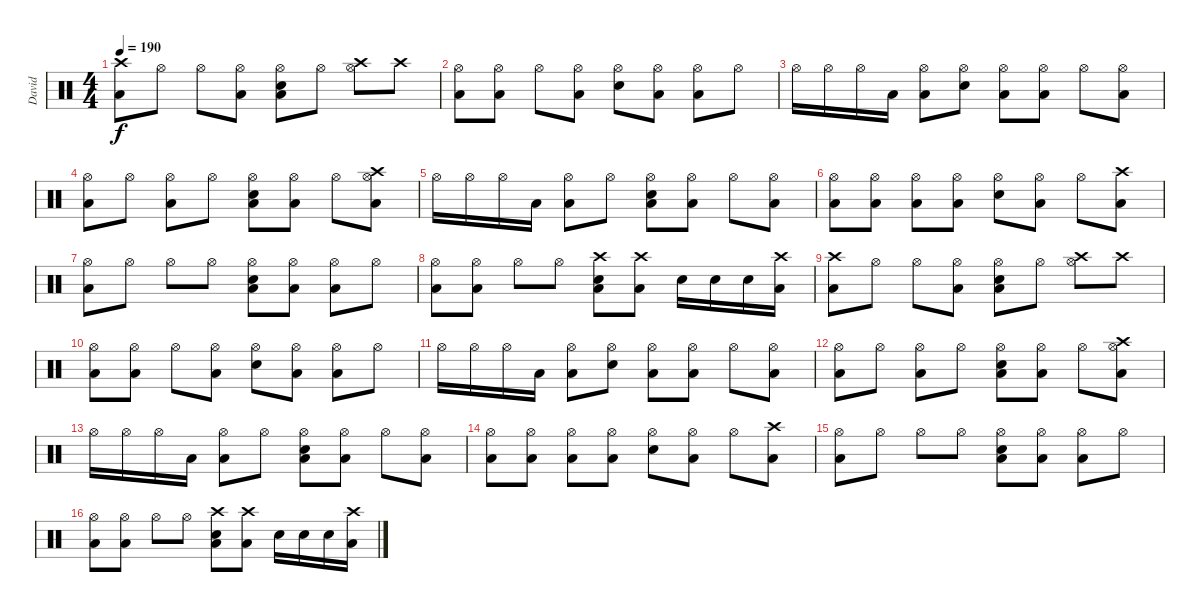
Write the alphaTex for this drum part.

\track ("David" "David") {instrument percussion}
\staff {score}
\articulation defaults
\ts (4 4)
\tempo 190
\clef neutral
\ks c
("Crash high (hit)" "Low Tom (hit)").8{dy f} "Hi-Hat (open)".8 "Hi-Hat (open)".8 ("Hi-Hat (open)" "Low Tom (hit)").8 ("Hi-Hat (open)" "Electric Snare (hit)" "Low Tom (hit)").8 "Hi-Hat (open)".8 ("Crash high (hit)" "Hi-Hat (open)").8 "Crash high (hit)".8 |
("Hi-Hat (open)" "Low Tom (hit)").8 ("Hi-Hat (open)" "Low Tom (hit)").8 "Hi-Hat (open)".8 ("Hi-Hat (open)" "Low Tom (hit)").8 ("Hi-Hat (open)" "Electric Snare (hit)").8 ("Hi-Hat (open)" "Low Tom (hit)").8 ("Hi-Hat (open)" "Low Tom (hit)").8 "Hi-Hat (open)".8 |
"Hi-Hat (open)".16 "Hi-Hat (open)".16 "Hi-Hat (open)".16 "Low Tom (hit)".16 ("Hi-Hat (open)" "Low Tom (hit)").8 ("Hi-Hat (open)" "Electric Snare (hit)").8 ("Hi-Hat (open)" "Low Tom (hit)").8 ("Hi-Hat (open)" "Low Tom (hit)").8 "Hi-Hat (open)".8 ("Hi-Hat (open)" "Low Tom (hit)").8 |
("Hi-Hat (open)" "Low Tom (hit)").8 "Hi-Hat (open)".8 ("Hi-Hat (open)" "Low Tom (hit)").8 "Hi-Hat (open)".8 ("Hi-Hat (open)" "Electric Snare (hit)" "Low Tom (hit)").8 ("Hi-Hat (open)" "Low Tom (hit)").8 "Hi-Hat (open)".8 ("Crash high (hit)" "Hi-Hat (open)" "Low Tom (hit)").8 |
"Hi-Hat (open)".16 "Hi-Hat (open)".16 "Hi-Hat (open)".16 "Low Tom (hit)".16 ("Hi-Hat (open)" "Low Tom (hit)").8 "Hi-Hat (open)".8 ("Hi-Hat (open)" "Electric Snare (hit)" "Low Tom (hit)").8 ("Hi-Hat (open)" "Low Tom (hit)").8 "Hi-Hat (open)".8 ("Hi-Hat (open)" "Low Tom (hit)").8 |
("Hi-Hat (open)" "Low Tom (hit)").8 ("Hi-Hat (open)" "Low Tom (hit)").8 ("Hi-Hat (open)" "Low Tom (hit)").8 ("Hi-Hat (open)" "Low Tom (hit)").8 ("Hi-Hat (open)" "Electric Snare (hit)").8 ("Hi-Hat (open)" "Low Tom (hit)").8 "Hi-Hat (open)".8 ("Crash high (hit)" "Low Tom (hit)").8 |
("Hi-Hat (open)" "Low Tom (hit)").8 "Hi-Hat (open)".8 "Hi-Hat (open)".8 "Hi-Hat (open)".8 ("Hi-Hat (open)" "Electric Snare (hit)" "Low Tom (hit)").8 ("Hi-Hat (open)" "Low Tom (hit)").8 ("Hi-Hat (open)" "Low Tom (hit)").8 "Hi-Hat (open)".8 |
("Hi-Hat (open)" "Low Tom (hit)").8 ("Hi-Hat (open)" "Low Tom (hit)").8 "Hi-Hat (open)".8 "Hi-Hat (open)".8 ("Crash high (hit)" "Electric Snare (hit)" "Low Tom (hit)").8 ("Crash high (hit)" "Low Tom (hit)").8 "Electric Snare (hit)".16 "Electric Snare (hit)".16 "Electric Snare (hit)".16 ("Crash high (hit)" "Low Tom (hit)").16 |
("Crash high (hit)" "Low Tom (hit)").8 "Hi-Hat (open)".8 "Hi-Hat (open)".8 ("Hi-Hat (open)" "Low Tom (hit)").8 ("Hi-Hat (open)" "Electric Snare (hit)" "Low Tom (hit)").8 "Hi-Hat (open)".8 ("Crash high (hit)" "Hi-Hat (open)").8 "Crash high (hit)".8 |
("Hi-Hat (open)" "Low Tom (hit)").8 ("Hi-Hat (open)" "Low Tom (hit)").8 "Hi-Hat (open)".8 ("Hi-Hat (open)" "Low Tom (hit)").8 ("Hi-Hat (open)" "Electric Snare (hit)").8 ("Hi-Hat (open)" "Low Tom (hit)").8 ("Hi-Hat (open)" "Low Tom (hit)").8 "Hi-Hat (open)".8 |
"Hi-Hat (open)".16 "Hi-Hat (open)".16 "Hi-Hat (open)".16 "Low Tom (hit)".16 ("Hi-Hat (open)" "Low Tom (hit)").8 ("Hi-Hat (open)" "Electric Snare (hit)").8 ("Hi-Hat (open)" "Low Tom (hit)").8 ("Hi-Hat (open)" "Low Tom (hit)").8 "Hi-Hat (open)".8 ("Hi-Hat (open)" "Low Tom (hit)").8 |
("Hi-Hat (open)" "Low Tom (hit)").8 "Hi-Hat (open)".8 ("Hi-Hat (open)" "Low Tom (hit)").8 "Hi-Hat (open)".8 ("Hi-Hat (open)" "Electric Snare (hit)" "Low Tom (hit)").8 ("Hi-Hat (open)" "Low Tom (hit)").8 "Hi-Hat (open)".8 ("Crash high (hit)" "Hi-Hat (open)" "Low Tom (hit)").8 |
"Hi-Hat (open)".16 "Hi-Hat (open)".16 "Hi-Hat (open)".16 "Low Tom (hit)".16 ("Hi-Hat (open)" "Low Tom (hit)").8 "Hi-Hat (open)".8 ("Hi-Hat (open)" "Electric Snare (hit)" "Low Tom (hit)").8 ("Hi-Hat (open)" "Low Tom (hit)").8 "Hi-Hat (open)".8 ("Hi-Hat (open)" "Low Tom (hit)").8 |
("Hi-Hat (open)" "Low Tom (hit)").8 ("Hi-Hat (open)" "Low Tom (hit)").8 ("Hi-Hat (open)" "Low Tom (hit)").8 ("Hi-Hat (open)" "Low Tom (hit)").8 ("Hi-Hat (open)" "Electric Snare (hit)").8 ("Hi-Hat (open)" "Low Tom (hit)").8 "Hi-Hat (open)".8 ("Crash high (hit)" "Low Tom (hit)").8 |
("Hi-Hat (open)" "Low Tom (hit)").8 "Hi-Hat (open)".8 "Hi-Hat (open)".8 "Hi-Hat (open)".8 ("Hi-Hat (open)" "Electric Snare (hit)" "Low Tom (hit)").8 ("Hi-Hat (open)" "Low Tom (hit)").8 ("Hi-Hat (open)" "Low Tom (hit)").8 "Hi-Hat (open)".8 |
("Hi-Hat (open)" "Low Tom (hit)").8 ("Hi-Hat (open)" "Low Tom (hit)").8 "Hi-Hat (open)".8 "Hi-Hat (open)".8 ("Crash high (hit)" "Electric Snare (hit)" "Low Tom (hit)").8 ("Crash high (hit)" "Low Tom (hit)").8 "Electric Snare (hit)".16 "Electric Snare (hit)".16 "Electric Snare (hit)".16 ("Crash high (hit)" "Low Tom (hit)").16
